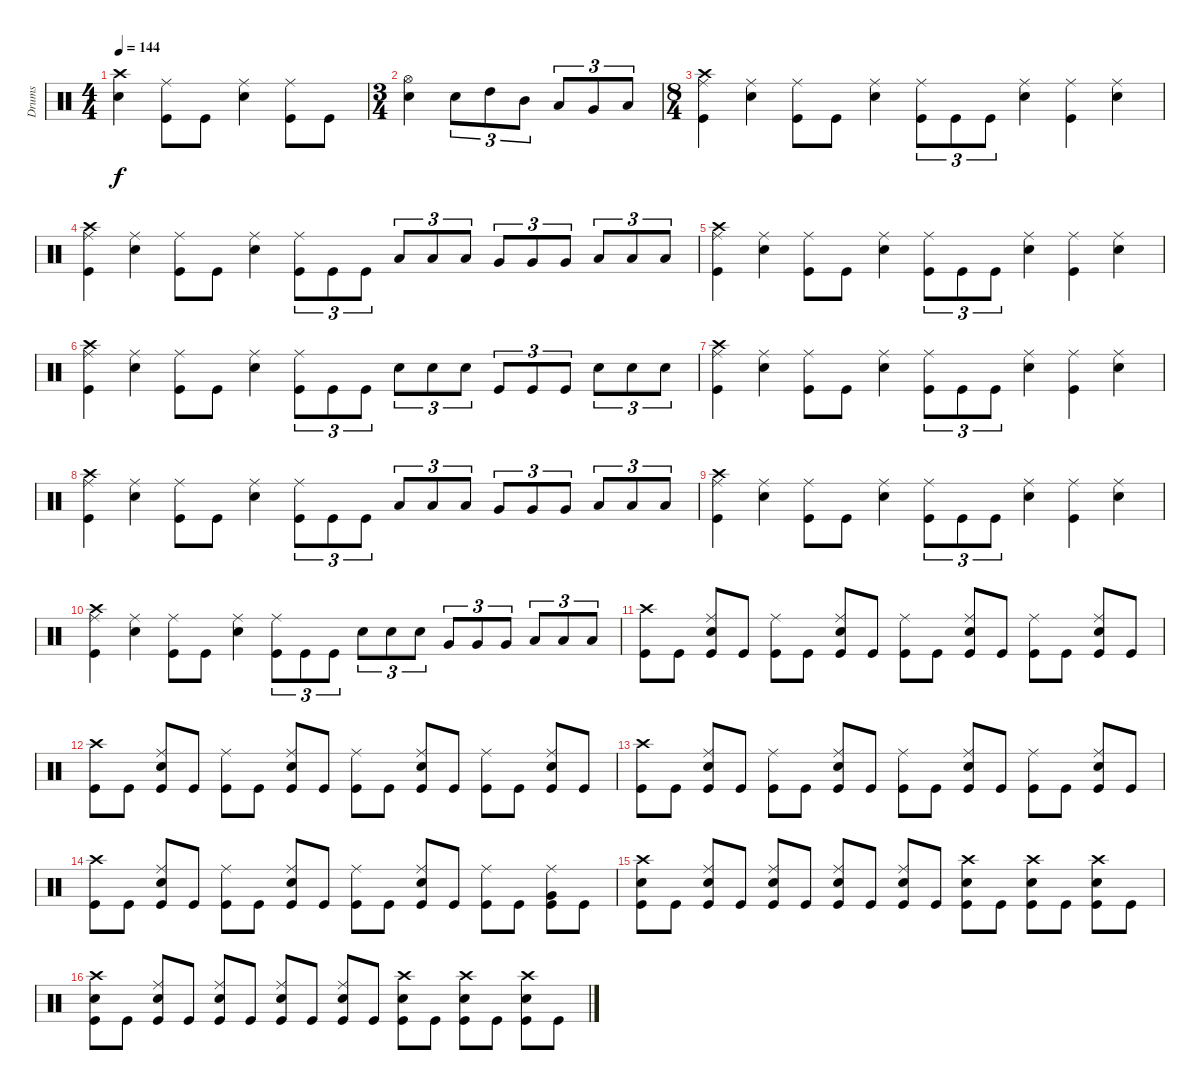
\track ("Drums" "Drums") {instrument percussion}
\staff {score}
\articulation defaults
\ts (4 4)
\tempo 144
\clef neutral
\ks c
("Crash high (hit)" "Snare (hit) 2").4{dy f} ("Ride (middle)" "Kick (hit)").8 "Kick (hit)".8 ("Ride (middle)" "Snare (hit) 2").4 ("Ride (middle)" "Kick (hit)").8 "Kick (hit)".8 |
\ts (3 4)
("Hi-Hat (open)" "Snare (hit) 2").4 "Snare (hit) 2".8{tu (3 2)} "High Tom (hit)".8{tu (3 2)} "Mid Tom (hit)".8{tu (3 2)} "Low Tom (hit)".8{tu (3 2)} "Very Low Tom (hit)".8{tu (3 2)} "Low Floor Tom (hit)".8{tu (3 2)} |
\ts (8 4)
("Crash high (hit)" "Ride (middle)" "Kick (hit)").4 ("Ride (middle)" "Snare (hit) 2").4 ("Ride (middle)" "Kick (hit)").8 "Kick (hit)".8 ("Ride (middle)" "Snare (hit) 2").4 ("Ride (middle)" "Kick (hit)").8{tu (3 2)} "Kick (hit)".8{tu (3 2)} "Kick (hit)".8{tu (3 2)} ("Ride (middle)" "Snare (hit) 2").4 ("Ride (middle)" "Kick (hit)").4 ("Ride (middle)" "Snare (hit) 2").4 |
("Crash high (hit)" "Ride (middle)" "Kick (hit)").4 ("Ride (middle)" "Snare (hit) 2").4 ("Ride (middle)" "Kick (hit)").8 "Kick (hit)".8 ("Ride (middle)" "Snare (hit) 2").4 ("Ride (middle)" "Kick (hit)").8{tu (3 2)} "Kick (hit)".8{tu (3 2)} "Kick (hit)".8{tu (3 2)} "Low Tom (hit)".8{tu (3 2)} "Low Tom (hit)".8{tu (3 2)} "Low Tom (hit)".8{tu (3 2)} "Very Low Tom (hit)".8{tu (3 2)} "Very Low Tom (hit)".8{tu (3 2)} "Very Low Tom (hit)".8{tu (3 2)} "Low Floor Tom (hit)".8{tu (3 2)} "Low Floor Tom (hit)".8{tu (3 2)} "Low Floor Tom (hit)".8{tu (3 2)} |
("Crash high (hit)" "Ride (middle)" "Kick (hit)").4 ("Ride (middle)" "Snare (hit) 2").4 ("Ride (middle)" "Kick (hit)").8 "Kick (hit)".8 ("Ride (middle)" "Snare (hit) 2").4 ("Ride (middle)" "Kick (hit)").8{tu (3 2)} "Kick (hit)".8{tu (3 2)} "Kick (hit)".8{tu (3 2)} ("Ride (middle)" "Snare (hit) 2").4 ("Ride (middle)" "Kick (hit)").4 ("Ride (middle)" "Snare (hit) 2").4 |
("Crash high (hit)" "Ride (middle)" "Kick (hit)").4 ("Ride (middle)" "Snare (hit) 2").4 ("Ride (middle)" "Kick (hit)").8 "Kick (hit)".8 ("Ride (middle)" "Snare (hit) 2").4 ("Ride (middle)" "Kick (hit)").8{tu (3 2)} "Kick (hit)".8{tu (3 2)} "Kick (hit)".8{tu (3 2)} "Snare (hit) 2".8{tu (3 2)} "Snare (hit) 2".8{tu (3 2)} "Snare (hit) 2".8{tu (3 2)} "Kick (hit)".8{tu (3 2)} "Kick (hit)".8{tu (3 2)} "Kick (hit)".8{tu (3 2)} "Snare (hit) 2".8{tu (3 2)} "Snare (hit) 2".8{tu (3 2)} "Snare (hit) 2".8{tu (3 2)} |
("Crash high (hit)" "Ride (middle)" "Kick (hit)").4 ("Ride (middle)" "Snare (hit) 2").4 ("Ride (middle)" "Kick (hit)").8 "Kick (hit)".8 ("Ride (middle)" "Snare (hit) 2").4 ("Ride (middle)" "Kick (hit)").8{tu (3 2)} "Kick (hit)".8{tu (3 2)} "Kick (hit)".8{tu (3 2)} ("Ride (middle)" "Snare (hit) 2").4 ("Ride (middle)" "Kick (hit)").4 ("Ride (middle)" "Snare (hit) 2").4 |
("Crash high (hit)" "Ride (middle)" "Kick (hit)").4 ("Ride (middle)" "Snare (hit) 2").4 ("Ride (middle)" "Kick (hit)").8 "Kick (hit)".8 ("Ride (middle)" "Snare (hit) 2").4 ("Ride (middle)" "Kick (hit)").8{tu (3 2)} "Kick (hit)".8{tu (3 2)} "Kick (hit)".8{tu (3 2)} "Low Tom (hit)".8{tu (3 2)} "Low Tom (hit)".8{tu (3 2)} "Low Tom (hit)".8{tu (3 2)} "Very Low Tom (hit)".8{tu (3 2)} "Very Low Tom (hit)".8{tu (3 2)} "Very Low Tom (hit)".8{tu (3 2)} "Low Floor Tom (hit)".8{tu (3 2)} "Low Floor Tom (hit)".8{tu (3 2)} "Low Floor Tom (hit)".8{tu (3 2)} |
("Crash high (hit)" "Ride (middle)" "Kick (hit)").4 ("Ride (middle)" "Snare (hit) 2").4 ("Ride (middle)" "Kick (hit)").8 "Kick (hit)".8 ("Ride (middle)" "Snare (hit) 2").4 ("Ride (middle)" "Kick (hit)").8{tu (3 2)} "Kick (hit)".8{tu (3 2)} "Kick (hit)".8{tu (3 2)} ("Ride (middle)" "Snare (hit) 2").4 ("Ride (middle)" "Kick (hit)").4 ("Ride (middle)" "Snare (hit) 2").4 |
("Crash high (hit)" "Ride (middle)" "Kick (hit)").4 ("Ride (middle)" "Snare (hit) 2").4 ("Ride (middle)" "Kick (hit)").8 "Kick (hit)".8 ("Ride (middle)" "Snare (hit) 2").4 ("Ride (middle)" "Kick (hit)").8{tu (3 2)} "Kick (hit)".8{tu (3 2)} "Kick (hit)".8{tu (3 2)} "Snare (hit) 2".8{tu (3 2)} "Snare (hit) 2".8{tu (3 2)} "Snare (hit) 2".8{tu (3 2)} "Very Low Tom (hit)".8{tu (3 2)} "Very Low Tom (hit)".8{tu (3 2)} "Very Low Tom (hit)".8{tu (3 2)} "Low Floor Tom (hit)".8{tu (3 2)} "Low Floor Tom (hit)".8{tu (3 2)} "Low Floor Tom (hit)".8{tu (3 2)} |
("Crash high (hit)" "Kick (hit)").8 "Kick (hit)".8 ("Ride (middle)" "Snare (hit) 2" "Kick (hit)").8 "Kick (hit)".8 ("Ride (middle)" "Kick (hit)").8 "Kick (hit)".8 ("Ride (middle)" "Snare (hit) 2" "Kick (hit)").8 "Kick (hit)".8 ("Ride (middle)" "Kick (hit)").8 "Kick (hit)".8 ("Ride (middle)" "Snare (hit) 2" "Kick (hit)").8 "Kick (hit)".8 ("Ride (middle)" "Kick (hit)").8 "Kick (hit)".8 ("Ride (middle)" "Snare (hit) 2" "Kick (hit)").8 "Kick (hit)".8 |
("Crash high (hit)" "Kick (hit)").8 "Kick (hit)".8 ("Ride (middle)" "Snare (hit) 2" "Kick (hit)").8 "Kick (hit)".8 ("Ride (middle)" "Kick (hit)").8 "Kick (hit)".8 ("Ride (middle)" "Snare (hit) 2" "Kick (hit)").8 "Kick (hit)".8 ("Ride (middle)" "Kick (hit)").8 "Kick (hit)".8 ("Ride (middle)" "Snare (hit) 2" "Kick (hit)").8 "Kick (hit)".8 ("Ride (middle)" "Kick (hit)").8 "Kick (hit)".8 ("Ride (middle)" "Snare (hit) 2" "Kick (hit)").8 "Kick (hit)".8 |
("Crash high (hit)" "Kick (hit)").8 "Kick (hit)".8 ("Ride (middle)" "Snare (hit) 2" "Kick (hit)").8 "Kick (hit)".8 ("Ride (middle)" "Kick (hit)").8 "Kick (hit)".8 ("Ride (middle)" "Snare (hit) 2" "Kick (hit)").8 "Kick (hit)".8 ("Ride (middle)" "Kick (hit)").8 "Kick (hit)".8 ("Ride (middle)" "Snare (hit) 2" "Kick (hit)").8 "Kick (hit)".8 ("Ride (middle)" "Kick (hit)").8 "Kick (hit)".8 ("Ride (middle)" "Snare (hit) 2" "Kick (hit)").8 "Kick (hit)".8 |
("Crash high (hit)" "Kick (hit)").8 "Kick (hit)".8 ("Ride (middle)" "Snare (hit) 2" "Kick (hit)").8 "Kick (hit)".8 ("Ride (middle)" "Kick (hit)").8 "Kick (hit)".8 ("Ride (middle)" "Snare (hit) 2" "Kick (hit)").8 "Kick (hit)".8 ("Ride (middle)" "Kick (hit)").8 "Kick (hit)".8 ("Ride (middle)" "Snare (hit) 2" "Kick (hit)").8 "Kick (hit)".8 ("Ride (middle)" "Kick (hit)").8 "Kick (hit)".8 ("Ride (middle)" "Very Low Tom (hit)" "Kick (hit)").8 "Kick (hit)".8 |
("Crash high (hit)" "Snare (hit) 2" "Kick (hit)").8 "Kick (hit)".8 ("Ride (middle)" "Snare (hit) 2" "Kick (hit)").8 "Kick (hit)".8 ("Ride (middle)" "Snare (hit) 2" "Kick (hit)").8 "Kick (hit)".8 ("Ride (middle)" "Snare (hit) 2" "Kick (hit)").8 "Kick (hit)".8 ("Ride (middle)" "Snare (hit) 2" "Kick (hit)").8 "Kick (hit)".8 ("Crash high (hit)" "Snare (hit) 2" "Kick (hit)").8 "Kick (hit)".8 ("Crash high (hit)" "Snare (hit) 2" "Kick (hit)").8 "Kick (hit)".8 ("Crash high (hit)" "Snare (hit) 2" "Kick (hit)").8 "Kick (hit)".8 |
("Crash high (hit)" "Snare (hit) 2" "Kick (hit)").8 "Kick (hit)".8 ("Ride (middle)" "Snare (hit) 2" "Kick (hit)").8 "Kick (hit)".8 ("Ride (middle)" "Snare (hit) 2" "Kick (hit)").8 "Kick (hit)".8 ("Ride (middle)" "Snare (hit) 2" "Kick (hit)").8 "Kick (hit)".8 ("Ride (middle)" "Snare (hit) 2" "Kick (hit)").8 "Kick (hit)".8 ("Crash high (hit)" "Snare (hit) 2" "Kick (hit)").8 "Kick (hit)".8 ("Crash high (hit)" "Snare (hit) 2" "Kick (hit)").8 "Kick (hit)".8 ("Crash high (hit)" "Snare (hit) 2" "Kick (hit)").8 "Kick (hit)".8
